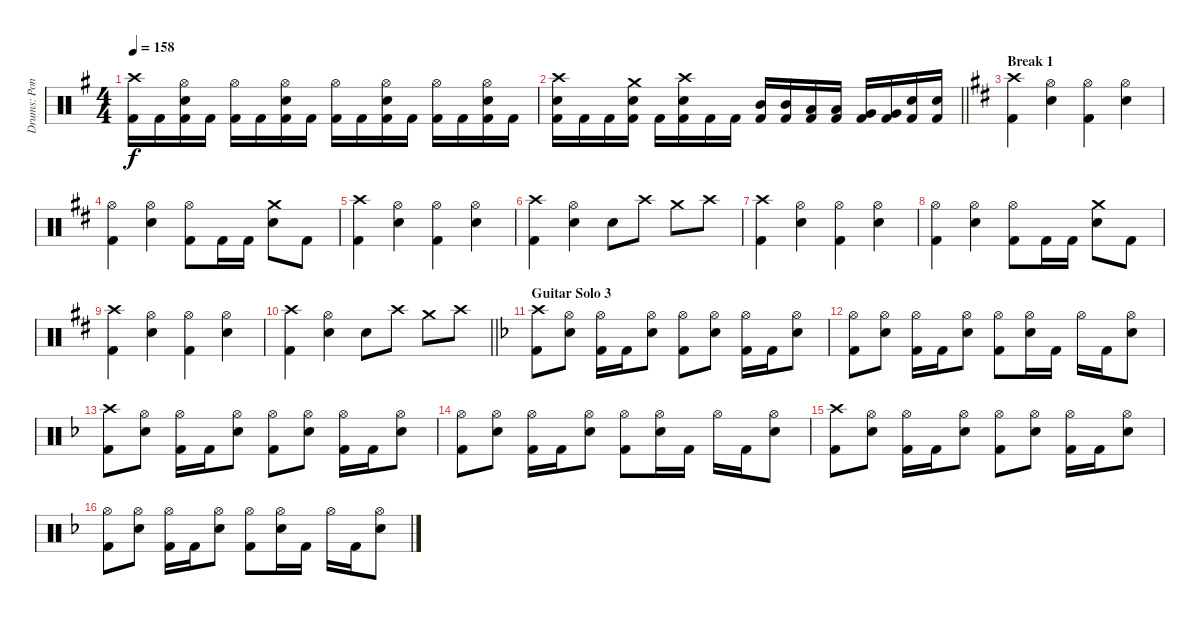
\track ("Drums: Pontus Jansson" "Drums: Pon") {instrument percussion}
\staff {score}
\articulation defaults
\ts (4 4)
\tempo 158
\clef neutral
\ks eminor
("Crash high (hit)" "Kick (hit) 2").16{dy f} "Kick (hit) 2".16 ("Hi-Hat (open)" "Electric Snare (hit)" "Kick (hit) 2").16 "Kick (hit) 2".16 ("Hi-Hat (open)" "Kick (hit) 2").16 "Kick (hit) 2".16 ("Hi-Hat (open)" "Electric Snare (hit)" "Kick (hit) 2").16 "Kick (hit) 2".16 ("Hi-Hat (open)" "Kick (hit) 2").16 "Kick (hit) 2".16 ("Hi-Hat (open)" "Electric Snare (hit)" "Kick (hit) 2").16 "Kick (hit) 2".16 ("Hi-Hat (open)" "Kick (hit) 2").16 "Kick (hit) 2".16 ("Hi-Hat (open)" "Electric Snare (hit)" "Kick (hit) 2").16 "Kick (hit) 2".16 |
\barLineRight lightlight
("Crash high (hit)" "Electric Snare (hit)" "Kick (hit) 2").16 "Kick (hit) 2".16 "Kick (hit) 2".16 ("Crash medium (hit)" "Electric Snare (hit)" "Kick (hit) 2").16 "Kick (hit) 2".16 ("Crash high (hit)" "Electric Snare (hit)" "Kick (hit) 2").16 "Kick (hit) 2".16 "Kick (hit) 2".16 ("Mid Tom (hit)" "Kick (hit) 2").16 ("Mid Tom (hit)" "Kick (hit) 2").16 ("Low Tom (hit)" "Kick (hit) 2").16 ("Low Tom (hit)" "Kick (hit) 2").16 ("Very Low Tom (hit)" "Kick (hit) 2").16 ("Very Low Tom (hit)" "Kick (hit) 2").16 ("Electric Snare (hit)" "Kick (hit) 2").16 ("Electric Snare (hit)" "Kick (hit) 2").16 |
\section ("" "Break 1")
\ks bminor
("Crash high (hit)" "Kick (hit) 2").4 ("Hi-Hat (open)" "Electric Snare (hit)").4 ("Hi-Hat (open)" "Kick (hit) 2").4 ("Hi-Hat (open)" "Electric Snare (hit)").4 |
("Hi-Hat (open)" "Kick (hit) 2").4 ("Hi-Hat (open)" "Electric Snare (hit)").4 ("Hi-Hat (open)" "Kick (hit) 2").8 "Kick (hit) 2".16 "Kick (hit) 2".16 ("Crash medium (hit)" "Electric Snare (hit)").8 "Kick (hit) 2".8 |
("Crash high (hit)" "Kick (hit) 2").4 ("Hi-Hat (open)" "Electric Snare (hit)").4 ("Hi-Hat (open)" "Kick (hit) 2").4 ("Hi-Hat (open)" "Electric Snare (hit)").4 |
("Crash high (hit)" "Kick (hit) 2").4 ("Hi-Hat (open)" "Electric Snare (hit)").4 "Electric Snare (hit)".8 "Crash high (hit)".8 "Crash medium (hit)".8 "Crash high (hit)".8 |
("Crash high (hit)" "Kick (hit) 2").4 ("Hi-Hat (open)" "Electric Snare (hit)").4 ("Hi-Hat (open)" "Kick (hit) 2").4 ("Hi-Hat (open)" "Electric Snare (hit)").4 |
("Hi-Hat (open)" "Kick (hit) 2").4 ("Hi-Hat (open)" "Electric Snare (hit)").4 ("Hi-Hat (open)" "Kick (hit) 2").8 "Kick (hit) 2".16 "Kick (hit) 2".16 ("Crash medium (hit)" "Electric Snare (hit)").8 "Kick (hit) 2".8 |
("Crash high (hit)" "Kick (hit) 2").4 ("Hi-Hat (open)" "Electric Snare (hit)").4 ("Hi-Hat (open)" "Kick (hit) 2").4 ("Hi-Hat (open)" "Electric Snare (hit)").4 |
\barLineRight lightlight
("Crash high (hit)" "Kick (hit) 2").4 ("Hi-Hat (open)" "Electric Snare (hit)").4 "Electric Snare (hit)".8 "Crash high (hit)".8 "Crash medium (hit)".8 "Crash high (hit)".8 |
\section ("" "Guitar Solo 3")
\ks dminor
("Crash high (hit)" "Kick (hit) 2").8 ("Hi-Hat (open)" "Electric Snare (hit)").8 ("Hi-Hat (open)" "Kick (hit) 2").16 "Kick (hit) 2".16 ("Hi-Hat (open)" "Electric Snare (hit)").8 ("Hi-Hat (open)" "Kick (hit) 2").8 ("Hi-Hat (open)" "Electric Snare (hit)").8 ("Hi-Hat (open)" "Kick (hit) 2").16 "Kick (hit) 2".16 ("Hi-Hat (open)" "Electric Snare (hit)").8 |
("Hi-Hat (open)" "Kick (hit) 2").8 ("Hi-Hat (open)" "Electric Snare (hit)").8 ("Hi-Hat (open)" "Kick (hit) 2").16 "Kick (hit) 2".16 ("Hi-Hat (open)" "Electric Snare (hit)").8 ("Hi-Hat (open)" "Kick (hit) 2").8 ("Hi-Hat (open)" "Electric Snare (hit)").16 "Kick (hit) 2".16 "Hi-Hat (open)".16 "Kick (hit) 2".16 ("Hi-Hat (open)" "Electric Snare (hit)").8 |
("Crash high (hit)" "Kick (hit) 2").8 ("Hi-Hat (open)" "Electric Snare (hit)").8 ("Hi-Hat (open)" "Kick (hit) 2").16 "Kick (hit) 2".16 ("Hi-Hat (open)" "Electric Snare (hit)").8 ("Hi-Hat (open)" "Kick (hit) 2").8 ("Hi-Hat (open)" "Electric Snare (hit)").8 ("Hi-Hat (open)" "Kick (hit) 2").16 "Kick (hit) 2".16 ("Hi-Hat (open)" "Electric Snare (hit)").8 |
("Hi-Hat (open)" "Kick (hit) 2").8 ("Hi-Hat (open)" "Electric Snare (hit)").8 ("Hi-Hat (open)" "Kick (hit) 2").16 "Kick (hit) 2".16 ("Hi-Hat (open)" "Electric Snare (hit)").8 ("Hi-Hat (open)" "Kick (hit) 2").8 ("Hi-Hat (open)" "Electric Snare (hit)").16 "Kick (hit) 2".16 "Hi-Hat (open)".16 "Kick (hit) 2".16 ("Hi-Hat (open)" "Electric Snare (hit)").8 |
("Crash high (hit)" "Kick (hit) 2").8 ("Hi-Hat (open)" "Electric Snare (hit)").8 ("Hi-Hat (open)" "Kick (hit) 2").16 "Kick (hit) 2".16 ("Hi-Hat (open)" "Electric Snare (hit)").8 ("Hi-Hat (open)" "Kick (hit) 2").8 ("Hi-Hat (open)" "Electric Snare (hit)").8 ("Hi-Hat (open)" "Kick (hit) 2").16 "Kick (hit) 2".16 ("Hi-Hat (open)" "Electric Snare (hit)").8 |
("Hi-Hat (open)" "Kick (hit) 2").8 ("Hi-Hat (open)" "Electric Snare (hit)").8 ("Hi-Hat (open)" "Kick (hit) 2").16 "Kick (hit) 2".16 ("Hi-Hat (open)" "Electric Snare (hit)").8 ("Hi-Hat (open)" "Kick (hit) 2").8 ("Hi-Hat (open)" "Electric Snare (hit)").16 "Kick (hit) 2".16 "Hi-Hat (open)".16 "Kick (hit) 2".16 ("Hi-Hat (open)" "Electric Snare (hit)").8
